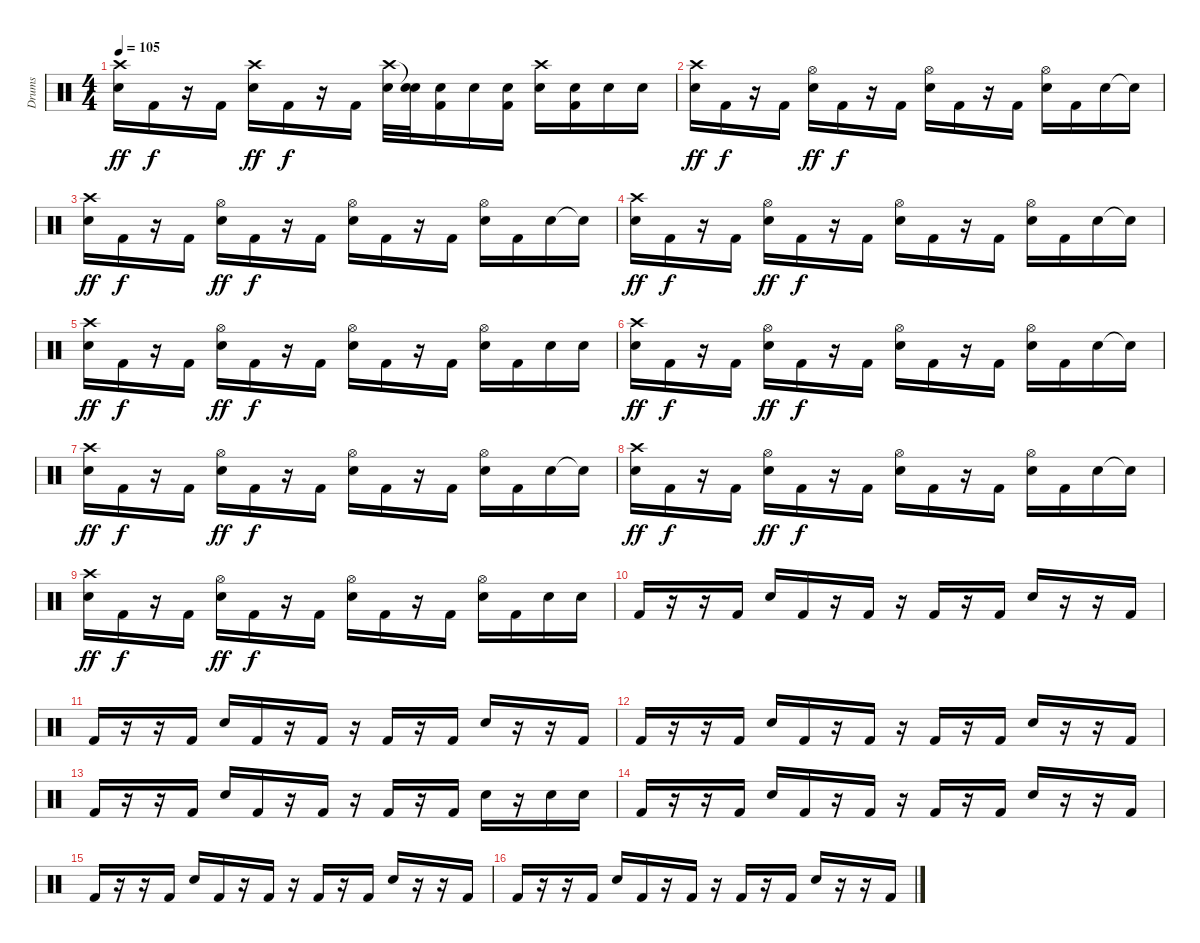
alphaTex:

\track ("Drums" "Drums") {instrument percussion}
\staff {score}
\articulation defaults
\ts (4 4)
\tempo 105
\clef neutral
\ks c
("Crash high (hit)" "Electric Snare (hit)").16{dy ff} "Kick (hit) 2".16{dy f} r.16 "Kick (hit) 2".16 ("Crash high (hit)" "Electric Snare (hit)").16{dy ff} "Kick (hit) 2".16{dy f} r.16 "Kick (hit) 2".16 ("Crash high (hit)" "Electric Snare (hit)").32 ("Snare (hit)"{t} "Electric Snare (hit)").32 ("Kick (hit) 2" "Electric Snare (hit)").16 "Electric Snare (hit)".16 ("Kick (hit) 2" "Electric Snare (hit)").16 ("Crash high (hit)" "Electric Snare (hit)").16 ("Kick (hit) 2" "Electric Snare (hit)").16 "Electric Snare (hit)".16 "Electric Snare (hit)".16 |
("Crash high (hit)" "Electric Snare (hit)").16{dy ff} "Kick (hit) 2".16{dy f} r.16 "Kick (hit) 2".16 ("Hi-Hat (open)" "Electric Snare (hit)").16{dy ff} "Kick (hit) 2".16{dy f} r.16 "Kick (hit) 2".16 ("Hi-Hat (open)" "Electric Snare (hit)").16 "Kick (hit) 2".16 r.16 "Kick (hit) 2".16 ("Hi-Hat (open)" "Electric Snare (hit)").16 "Kick (hit) 2".16 "Electric Snare (hit)".16 "Electric Snare (hit)"{t}.16 |
("Crash high (hit)" "Electric Snare (hit)").16{dy ff} "Kick (hit) 2".16{dy f} r.16 "Kick (hit) 2".16 ("Hi-Hat (open)" "Electric Snare (hit)").16{dy ff} "Kick (hit) 2".16{dy f} r.16 "Kick (hit) 2".16 ("Hi-Hat (open)" "Electric Snare (hit)").16 "Kick (hit) 2".16 r.16 "Kick (hit) 2".16 ("Hi-Hat (open)" "Electric Snare (hit)").16 "Kick (hit) 2".16 "Electric Snare (hit)".16 "Electric Snare (hit)"{t}.16 |
("Crash high (hit)" "Electric Snare (hit)").16{dy ff} "Kick (hit) 2".16{dy f} r.16 "Kick (hit) 2".16 ("Hi-Hat (open)" "Electric Snare (hit)").16{dy ff} "Kick (hit) 2".16{dy f} r.16 "Kick (hit) 2".16 ("Hi-Hat (open)" "Electric Snare (hit)").16 "Kick (hit) 2".16 r.16 "Kick (hit) 2".16 ("Hi-Hat (open)" "Electric Snare (hit)").16 "Kick (hit) 2".16 "Electric Snare (hit)".16 "Electric Snare (hit)"{t}.16 |
("Crash high (hit)" "Electric Snare (hit)").16{dy ff} "Kick (hit) 2".16{dy f} r.16 "Kick (hit) 2".16 ("Hi-Hat (open)" "Electric Snare (hit)").16{dy ff} "Kick (hit) 2".16{dy f} r.16 "Kick (hit) 2".16 ("Hi-Hat (open)" "Electric Snare (hit)").16 "Kick (hit) 2".16 r.16 "Kick (hit) 2".16 ("Hi-Hat (open)" "Electric Snare (hit)").16 "Kick (hit) 2".16 "Electric Snare (hit)".16 "Electric Snare (hit)".16 |
("Crash high (hit)" "Electric Snare (hit)").16{dy ff} "Kick (hit) 2".16{dy f} r.16 "Kick (hit) 2".16 ("Hi-Hat (open)" "Electric Snare (hit)").16{dy ff} "Kick (hit) 2".16{dy f} r.16 "Kick (hit) 2".16 ("Hi-Hat (open)" "Electric Snare (hit)").16 "Kick (hit) 2".16 r.16 "Kick (hit) 2".16 ("Hi-Hat (open)" "Electric Snare (hit)").16 "Kick (hit) 2".16 "Electric Snare (hit)".16 "Electric Snare (hit)"{t}.16 |
("Crash high (hit)" "Electric Snare (hit)").16{dy ff} "Kick (hit) 2".16{dy f} r.16 "Kick (hit) 2".16 ("Hi-Hat (open)" "Electric Snare (hit)").16{dy ff} "Kick (hit) 2".16{dy f} r.16 "Kick (hit) 2".16 ("Hi-Hat (open)" "Electric Snare (hit)").16 "Kick (hit) 2".16 r.16 "Kick (hit) 2".16 ("Hi-Hat (open)" "Electric Snare (hit)").16 "Kick (hit) 2".16 "Electric Snare (hit)".16 "Electric Snare (hit)"{t}.16 |
("Crash high (hit)" "Electric Snare (hit)").16{dy ff} "Kick (hit) 2".16{dy f} r.16 "Kick (hit) 2".16 ("Hi-Hat (open)" "Electric Snare (hit)").16{dy ff} "Kick (hit) 2".16{dy f} r.16 "Kick (hit) 2".16 ("Hi-Hat (open)" "Electric Snare (hit)").16 "Kick (hit) 2".16 r.16 "Kick (hit) 2".16 ("Hi-Hat (open)" "Electric Snare (hit)").16 "Kick (hit) 2".16 "Electric Snare (hit)".16 "Electric Snare (hit)"{t}.16 |
("Crash high (hit)" "Electric Snare (hit)").16{dy ff} "Kick (hit) 2".16{dy f} r.16 "Kick (hit) 2".16 ("Hi-Hat (open)" "Electric Snare (hit)").16{dy ff} "Kick (hit) 2".16{dy f} r.16 "Kick (hit) 2".16 ("Hi-Hat (open)" "Electric Snare (hit)").16 "Kick (hit) 2".16 r.16 "Kick (hit) 2".16 ("Hi-Hat (open)" "Electric Snare (hit)").16 "Kick (hit) 2".16 "Electric Snare (hit)".16 "Electric Snare (hit)".16 |
"Kick (hit) 2".16 r.16 r.16 "Kick (hit) 2".16 "Electric Snare (hit)".16 "Kick (hit) 2".16 r.16 "Kick (hit) 2".16 r.16 "Kick (hit) 2".16 r.16 "Kick (hit) 2".16 "Electric Snare (hit)".16 r.16 r.16 "Kick (hit) 2".16 |
"Kick (hit) 2".16 r.16 r.16 "Kick (hit) 2".16 "Electric Snare (hit)".16 "Kick (hit) 2".16 r.16 "Kick (hit) 2".16 r.16 "Kick (hit) 2".16 r.16 "Kick (hit) 2".16 "Electric Snare (hit)".16 r.16 r.16 "Kick (hit) 2".16 |
"Kick (hit) 2".16 r.16 r.16 "Kick (hit) 2".16 "Electric Snare (hit)".16 "Kick (hit) 2".16 r.16 "Kick (hit) 2".16 r.16 "Kick (hit) 2".16 r.16 "Kick (hit) 2".16 "Electric Snare (hit)".16 r.16 r.16 "Kick (hit) 2".16 |
"Kick (hit) 2".16 r.16 r.16 "Kick (hit) 2".16 "Electric Snare (hit)".16 "Kick (hit) 2".16 r.16 "Kick (hit) 2".16 r.16 "Kick (hit) 2".16 r.16 "Kick (hit) 2".16 "Electric Snare (hit)".16 r.16 "Electric Snare (hit)".16 "Electric Snare (hit)".16 |
"Kick (hit) 2".16 r.16 r.16 "Kick (hit) 2".16 "Electric Snare (hit)".16 "Kick (hit) 2".16 r.16 "Kick (hit) 2".16 r.16 "Kick (hit) 2".16 r.16 "Kick (hit) 2".16 "Electric Snare (hit)".16 r.16 r.16 "Kick (hit) 2".16 |
"Kick (hit) 2".16 r.16 r.16 "Kick (hit) 2".16 "Electric Snare (hit)".16 "Kick (hit) 2".16 r.16 "Kick (hit) 2".16 r.16 "Kick (hit) 2".16 r.16 "Kick (hit) 2".16 "Electric Snare (hit)".16 r.16 r.16 "Kick (hit) 2".16 |
"Kick (hit) 2".16 r.16 r.16 "Kick (hit) 2".16 "Electric Snare (hit)".16 "Kick (hit) 2".16 r.16 "Kick (hit) 2".16 r.16 "Kick (hit) 2".16 r.16 "Kick (hit) 2".16 "Electric Snare (hit)".16 r.16 r.16 "Kick (hit) 2".16
